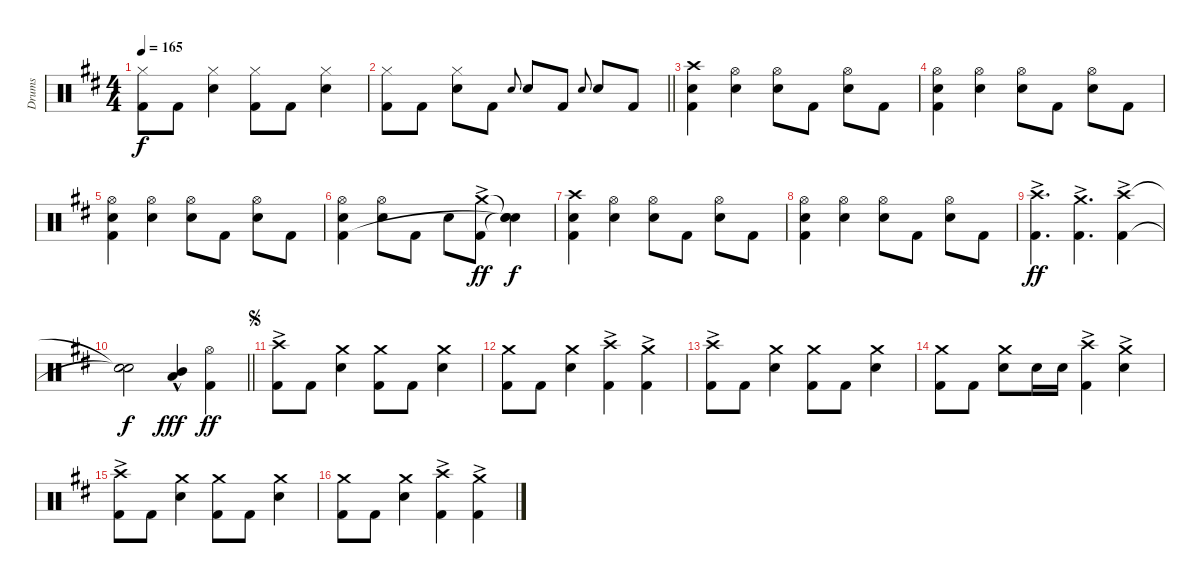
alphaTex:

\track ("Drums" "Drums") {instrument percussion}
\staff {score}
\articulation defaults
\ts (4 4)
\tempo 165
\clef neutral
\ks d
("Hi-Hat (closed)" "Kick (hit) 2").8{dy f} "Kick (hit) 2".8 ("Hi-Hat (closed)" "Electric Snare (hit)").4 ("Hi-Hat (closed)" "Kick (hit) 2").8 "Kick (hit) 2".8 ("Hi-Hat (closed)" "Electric Snare (hit)").4 |
\barLineRight lightlight
("Hi-Hat (closed)" "Kick (hit) 2").8 "Kick (hit) 2".8 ("Hi-Hat (closed)" "Electric Snare (hit)").8 "Kick (hit) 2".8 "Electric Snare (hit)".8{gr onbeat} "Electric Snare (hit)".8 "Kick (hit) 2".8 "Electric Snare (hit)".8{gr onbeat} "Electric Snare (hit)".8 "Kick (hit) 2".8 |
("Crash high (hit)" "Electric Snare (hit)" "Kick (hit) 2").4 ("Hi-Hat (open)" "Electric Snare (hit)").4 ("Hi-Hat (open)" "Electric Snare (hit)").8 "Kick (hit) 2".8 ("Hi-Hat (open)" "Electric Snare (hit)").8 "Kick (hit) 2".8 |
("Hi-Hat (open)" "Electric Snare (hit)" "Kick (hit) 2").4 ("Hi-Hat (open)" "Electric Snare (hit)").4 ("Hi-Hat (open)" "Electric Snare (hit)").8 "Kick (hit) 2".8 ("Hi-Hat (open)" "Electric Snare (hit)").8 "Kick (hit) 2".8 |
("Hi-Hat (open)" "Electric Snare (hit)" "Kick (hit) 2").4 ("Hi-Hat (open)" "Electric Snare (hit)").4 ("Hi-Hat (open)" "Electric Snare (hit)").8 "Kick (hit) 2".8 ("Hi-Hat (open)" "Electric Snare (hit)").8 "Kick (hit) 2".8 |
("Hi-Hat (open)" "Electric Snare (hit)" "Kick (hit) 2").4 ("Hi-Hat (open)" "Electric Snare (hit)").8 "Kick (hit) 2".8 "Electric Snare (hit)".8 ("Crash medium (hit)"{ac} "Kick (hit) 2").8{dy ff} ("Snare (hit)"{t} "Snare (hit)"{t} "Snare (hit)"{t}).4{dy f} |
("Crash high (hit)" "Electric Snare (hit)" "Kick (hit) 2").4 ("Hi-Hat (open)" "Electric Snare (hit)").4 ("Hi-Hat (open)" "Electric Snare (hit)").8 "Kick (hit) 2".8 ("Hi-Hat (open)" "Electric Snare (hit)").8 "Kick (hit) 2".8 |
("Hi-Hat (open)" "Electric Snare (hit)" "Kick (hit) 2").4 ("Hi-Hat (open)" "Electric Snare (hit)").4 ("Hi-Hat (open)" "Electric Snare (hit)").8 "Kick (hit) 2".8 ("Hi-Hat (open)" "Electric Snare (hit)").8 "Kick (hit) 2".8 |
("Crash high (hit)"{ac} "Kick (hit) 2"{ac}).4{d dy ff} ("Crash medium (hit)"{ac} "Kick (hit) 2"{ac}).4{d} ("Crash high (hit)"{ac} "Kick (hit) 2"{ac}).4 |
\barLineRight lightlight
("Snare (hit)"{t} "Snare (hit)"{t}).2{dy f} ("Mid Tom (hit)"{hac} "Low Floor Tom (hit)"{hac}).4{dy fff} ("Hi-Hat (open)" "Kick (hit) 2").4{dy ff} |
\jump segno
("Crash high (hit)"{ac} "Kick (hit) 2").8 "Kick (hit) 2".8 ("Crash medium (hit)" "Electric Snare (hit)").4 ("Crash medium (hit)" "Kick (hit) 2").8 "Kick (hit) 2".8 ("Crash medium (hit)" "Electric Snare (hit)").4 |
("Crash medium (hit)" "Kick (hit) 2").8 "Kick (hit) 2".8 ("Crash medium (hit)" "Electric Snare (hit)").4 ("Crash high (hit)"{ac} "Kick (hit) 2").4 ("Crash medium (hit)"{ac} "Kick (hit) 2").4 |
("Crash high (hit)"{ac} "Kick (hit) 2").8 "Kick (hit) 2".8 ("Crash medium (hit)" "Electric Snare (hit)").4 ("Crash medium (hit)" "Kick (hit) 2").8 "Kick (hit) 2".8 ("Crash medium (hit)" "Electric Snare (hit)").4 |
("Crash medium (hit)" "Kick (hit) 2").8 "Kick (hit) 2".8 ("Crash medium (hit)" "Electric Snare (hit)").8 "Electric Snare (hit)".16 "Electric Snare (hit)".16 ("Crash high (hit)"{ac} "Kick (hit) 2").4 ("Crash medium (hit)"{ac} "Electric Snare (hit)").4 |
("Crash high (hit)"{ac} "Kick (hit) 2").8 "Kick (hit) 2".8 ("Crash medium (hit)" "Electric Snare (hit)").4 ("Crash medium (hit)" "Kick (hit) 2").8 "Kick (hit) 2".8 ("Crash medium (hit)" "Electric Snare (hit)").4 |
("Crash medium (hit)" "Kick (hit) 2").8 "Kick (hit) 2".8 ("Crash medium (hit)" "Electric Snare (hit)").4 ("Crash high (hit)"{ac} "Kick (hit) 2").4 ("Crash medium (hit)"{ac} "Kick (hit) 2").4
